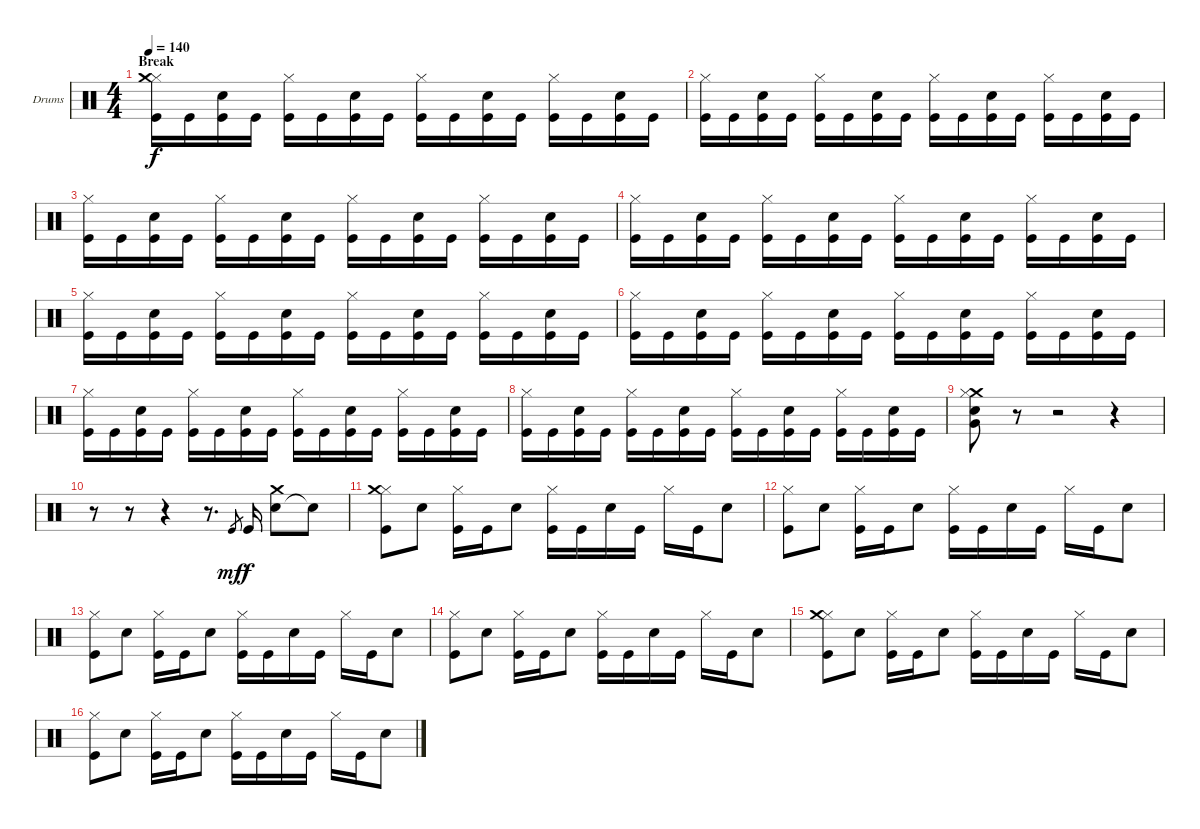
\bracketExtendMode groupsimilarinstruments
\firstSystemTrackNameOrientation horizontal
\otherSystemsTrackNameOrientation horizontal
\track ("Drumkit" "Drums") {instrument percussion}
\staff {score}
\articulation defaults
\ts (4 4)
\section ("" "Break")
\tempo 140
\clef neutral
\ks c
("Hi-Hat (closed)" "Kick (hit)" "Crash medium (hit)").16{dy f} "Kick (hit)".16 ("Snare (hit) 2" "Kick (hit)").16 "Kick (hit)".16 ("Hi-Hat (closed)" "Kick (hit)").16 "Kick (hit)".16 ("Snare (hit) 2" "Kick (hit)").16 "Kick (hit)".16 ("Hi-Hat (closed)" "Kick (hit)").16 "Kick (hit)".16 ("Snare (hit) 2" "Kick (hit)").16 "Kick (hit)".16 ("Hi-Hat (closed)" "Kick (hit)").16 "Kick (hit)".16 ("Snare (hit) 2" "Kick (hit)").16 "Kick (hit)".16 |
("Hi-Hat (closed)" "Kick (hit)").16 "Kick (hit)".16 ("Snare (hit) 2" "Kick (hit)").16 "Kick (hit)".16 ("Hi-Hat (closed)" "Kick (hit)").16 "Kick (hit)".16 ("Snare (hit) 2" "Kick (hit)").16 "Kick (hit)".16 ("Hi-Hat (closed)" "Kick (hit)").16 "Kick (hit)".16 ("Snare (hit) 2" "Kick (hit)").16 "Kick (hit)".16 ("Hi-Hat (closed)" "Kick (hit)").16 "Kick (hit)".16 ("Snare (hit) 2" "Kick (hit)").16 "Kick (hit)".16 |
("Hi-Hat (closed)" "Kick (hit)").16 "Kick (hit)".16 ("Snare (hit) 2" "Kick (hit)").16 "Kick (hit)".16 ("Hi-Hat (closed)" "Kick (hit)").16 "Kick (hit)".16 ("Snare (hit) 2" "Kick (hit)").16 "Kick (hit)".16 ("Hi-Hat (closed)" "Kick (hit)").16 "Kick (hit)".16 ("Snare (hit) 2" "Kick (hit)").16 "Kick (hit)".16 ("Hi-Hat (closed)" "Kick (hit)").16 "Kick (hit)".16 ("Snare (hit) 2" "Kick (hit)").16 "Kick (hit)".16 |
("Hi-Hat (closed)" "Kick (hit)").16 "Kick (hit)".16 ("Snare (hit) 2" "Kick (hit)").16 "Kick (hit)".16 ("Hi-Hat (closed)" "Kick (hit)").16 "Kick (hit)".16 ("Snare (hit) 2" "Kick (hit)").16 "Kick (hit)".16 ("Hi-Hat (closed)" "Kick (hit)").16 "Kick (hit)".16 ("Snare (hit) 2" "Kick (hit)").16 "Kick (hit)".16 ("Hi-Hat (closed)" "Kick (hit)").16 "Kick (hit)".16 ("Snare (hit) 2" "Kick (hit)").16 "Kick (hit)".16 |
("Hi-Hat (closed)" "Kick (hit)").16 "Kick (hit)".16 ("Snare (hit) 2" "Kick (hit)").16 "Kick (hit)".16 ("Hi-Hat (closed)" "Kick (hit)").16 "Kick (hit)".16 ("Snare (hit) 2" "Kick (hit)").16 "Kick (hit)".16 ("Hi-Hat (closed)" "Kick (hit)").16 "Kick (hit)".16 ("Snare (hit) 2" "Kick (hit)").16 "Kick (hit)".16 ("Hi-Hat (closed)" "Kick (hit)").16 "Kick (hit)".16 ("Snare (hit) 2" "Kick (hit)").16 "Kick (hit)".16 |
("Hi-Hat (closed)" "Kick (hit)").16 "Kick (hit)".16 ("Snare (hit) 2" "Kick (hit)").16 "Kick (hit)".16 ("Hi-Hat (closed)" "Kick (hit)").16 "Kick (hit)".16 ("Snare (hit) 2" "Kick (hit)").16 "Kick (hit)".16 ("Hi-Hat (closed)" "Kick (hit)").16 "Kick (hit)".16 ("Snare (hit) 2" "Kick (hit)").16 "Kick (hit)".16 ("Hi-Hat (closed)" "Kick (hit)").16 "Kick (hit)".16 ("Snare (hit) 2" "Kick (hit)").16 "Kick (hit)".16 |
("Hi-Hat (closed)" "Kick (hit)").16 "Kick (hit)".16 ("Snare (hit) 2" "Kick (hit)").16 "Kick (hit)".16 ("Hi-Hat (closed)" "Kick (hit)").16 "Kick (hit)".16 ("Snare (hit) 2" "Kick (hit)").16 "Kick (hit)".16 ("Hi-Hat (closed)" "Kick (hit)").16 "Kick (hit)".16 ("Snare (hit) 2" "Kick (hit)").16 "Kick (hit)".16 ("Hi-Hat (closed)" "Kick (hit)").16 "Kick (hit)".16 ("Snare (hit) 2" "Kick (hit)").16 "Kick (hit)".16 |
("Hi-Hat (closed)" "Kick (hit)").16 "Kick (hit)".16 ("Snare (hit) 2" "Kick (hit)").16 "Kick (hit)".16 ("Hi-Hat (closed)" "Kick (hit)").16 "Kick (hit)".16 ("Snare (hit) 2" "Kick (hit)").16 "Kick (hit)".16 ("Hi-Hat (closed)" "Kick (hit)").16 "Kick (hit)".16 ("Snare (hit) 2" "Kick (hit)").16 "Kick (hit)".16 ("Hi-Hat (closed)" "Kick (hit)").16 "Kick (hit)".16 ("Snare (hit) 2" "Kick (hit)").16 "Kick (hit)".16 |
("Crash medium (hit)" "Snare (hit) 2" "Hi-Hat (closed)" "Very Low Tom (hit)").8 r.8 r.2 r.4 |
r.8 r.8 r.4 r.8{d} "Kick (hit)".8{gr dy mf} "Kick (hit)".16{dy f} ("Snare (hit) 2" "Crash medium (hit)").8 "Snare (hit) 2"{t}.8 |
("Hi-Hat (closed)" "Kick (hit)" "Crash medium (hit)").8 "Snare (hit) 2".8 ("Hi-Hat (closed)" "Kick (hit)").16 "Kick (hit)".16 "Snare (hit) 2".8 ("Hi-Hat (closed)" "Kick (hit)").16 "Kick (hit)".16 "Snare (hit) 2".16 "Kick (hit)".16 "Hi-Hat (closed)".16 "Kick (hit)".16 "Snare (hit) 2".8 |
("Hi-Hat (closed)" "Kick (hit)").8 "Snare (hit) 2".8 ("Hi-Hat (closed)" "Kick (hit)").16 "Kick (hit)".16 "Snare (hit) 2".8 ("Hi-Hat (closed)" "Kick (hit)").16 "Kick (hit)".16 "Snare (hit) 2".16 "Kick (hit)".16 "Hi-Hat (closed)".16 "Kick (hit)".16 "Snare (hit) 2".8 |
("Hi-Hat (closed)" "Kick (hit)").8 "Snare (hit) 2".8 ("Hi-Hat (closed)" "Kick (hit)").16 "Kick (hit)".16 "Snare (hit) 2".8 ("Hi-Hat (closed)" "Kick (hit)").16 "Kick (hit)".16 "Snare (hit) 2".16 "Kick (hit)".16 "Hi-Hat (closed)".16 "Kick (hit)".16 "Snare (hit) 2".8 |
("Hi-Hat (closed)" "Kick (hit)").8 "Snare (hit) 2".8 ("Hi-Hat (closed)" "Kick (hit)").16 "Kick (hit)".16 "Snare (hit) 2".8 ("Hi-Hat (closed)" "Kick (hit)").16 "Kick (hit)".16 "Snare (hit) 2".16 "Kick (hit)".16 "Hi-Hat (closed)".16 "Kick (hit)".16 "Snare (hit) 2".8 |
("Hi-Hat (closed)" "Kick (hit)" "Crash medium (hit)").8 "Snare (hit) 2".8 ("Hi-Hat (closed)" "Kick (hit)").16 "Kick (hit)".16 "Snare (hit) 2".8 ("Hi-Hat (closed)" "Kick (hit)").16 "Kick (hit)".16 "Snare (hit) 2".16 "Kick (hit)".16 "Hi-Hat (closed)".16 "Kick (hit)".16 "Snare (hit) 2".8 |
("Hi-Hat (closed)" "Kick (hit)").8 "Snare (hit) 2".8 ("Hi-Hat (closed)" "Kick (hit)").16 "Kick (hit)".16 "Snare (hit) 2".8 ("Hi-Hat (closed)" "Kick (hit)").16 "Kick (hit)".16 "Snare (hit) 2".16 "Kick (hit)".16 "Hi-Hat (closed)".16 "Kick (hit)".16 "Snare (hit) 2".8
